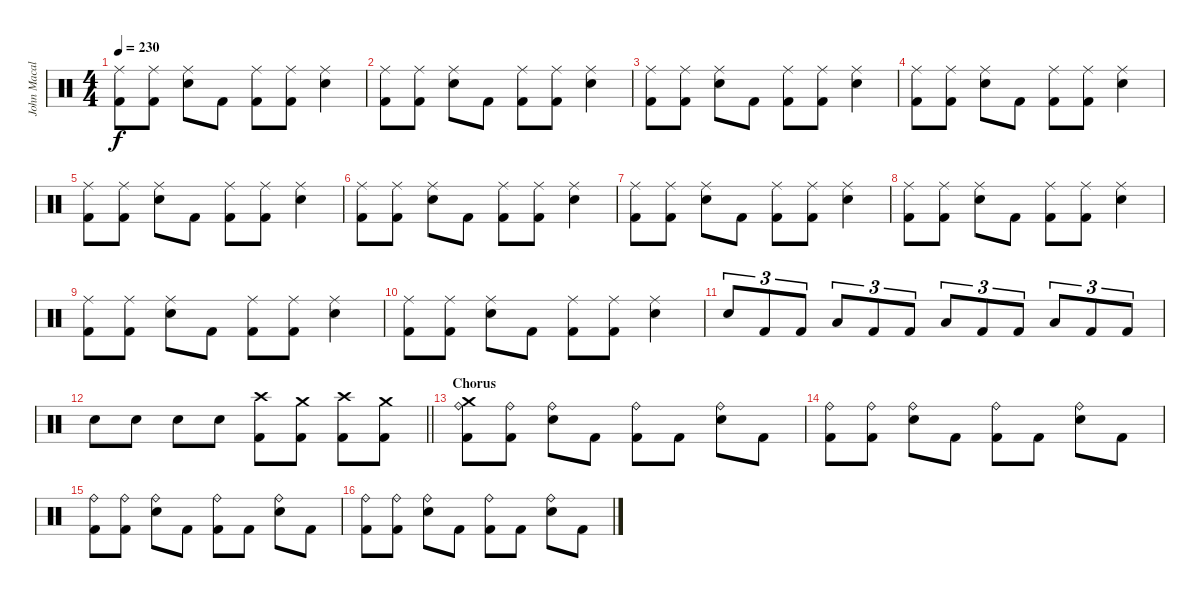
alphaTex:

\track ("John Macaluso" "John Macal") {instrument percussion}
\staff {score}
\articulation defaults
\ts (4 4)
\tempo 230
\clef neutral
\ks c
("Ride (middle)" "Kick (hit) 2").8{dy f} ("Ride (middle)" "Kick (hit) 2").8 ("Ride (middle)" "Snare (hit) 2").8 "Kick (hit) 2".8 ("Ride (middle)" "Kick (hit) 2").8 ("Ride (middle)" "Kick (hit) 2").8 ("Ride (middle)" "Snare (hit) 2").4 |
("Ride (middle)" "Kick (hit) 2").8 ("Ride (middle)" "Kick (hit) 2").8 ("Ride (middle)" "Snare (hit) 2").8 "Kick (hit) 2".8 ("Ride (middle)" "Kick (hit) 2").8 ("Ride (middle)" "Kick (hit) 2").8 ("Ride (middle)" "Snare (hit) 2").4 |
("Ride (middle)" "Kick (hit) 2").8 ("Ride (middle)" "Kick (hit) 2").8 ("Ride (middle)" "Snare (hit) 2").8 "Kick (hit) 2".8 ("Ride (middle)" "Kick (hit) 2").8 ("Ride (middle)" "Kick (hit) 2").8 ("Ride (middle)" "Snare (hit) 2").4 |
("Ride (middle)" "Kick (hit) 2").8 ("Ride (middle)" "Kick (hit) 2").8 ("Ride (middle)" "Snare (hit) 2").8 "Kick (hit) 2".8 ("Ride (middle)" "Kick (hit) 2").8 ("Ride (middle)" "Kick (hit) 2").8 ("Ride (middle)" "Snare (hit) 2").4 |
("Ride (middle)" "Kick (hit) 2").8 ("Ride (middle)" "Kick (hit) 2").8 ("Ride (middle)" "Snare (hit) 2").8 "Kick (hit) 2".8 ("Ride (middle)" "Kick (hit) 2").8 ("Ride (middle)" "Kick (hit) 2").8 ("Ride (middle)" "Snare (hit) 2").4 |
("Ride (middle)" "Kick (hit) 2").8 ("Ride (middle)" "Kick (hit) 2").8 ("Ride (middle)" "Snare (hit) 2").8 "Kick (hit) 2".8 ("Ride (middle)" "Kick (hit) 2").8 ("Ride (middle)" "Kick (hit) 2").8 ("Ride (middle)" "Snare (hit) 2").4 |
("Ride (middle)" "Kick (hit) 2").8 ("Ride (middle)" "Kick (hit) 2").8 ("Ride (middle)" "Snare (hit) 2").8 "Kick (hit) 2".8 ("Ride (middle)" "Kick (hit) 2").8 ("Ride (middle)" "Kick (hit) 2").8 ("Ride (middle)" "Snare (hit) 2").4 |
("Ride (middle)" "Kick (hit) 2").8 ("Ride (middle)" "Kick (hit) 2").8 ("Ride (middle)" "Snare (hit) 2").8 "Kick (hit) 2".8 ("Ride (middle)" "Kick (hit) 2").8 ("Ride (middle)" "Kick (hit) 2").8 ("Ride (middle)" "Snare (hit) 2").4 |
("Ride (middle)" "Kick (hit) 2").8 ("Ride (middle)" "Kick (hit) 2").8 ("Ride (middle)" "Snare (hit) 2").8 "Kick (hit) 2".8 ("Ride (middle)" "Kick (hit) 2").8 ("Ride (middle)" "Kick (hit) 2").8 ("Ride (middle)" "Snare (hit) 2").4 |
("Ride (middle)" "Kick (hit) 2").8 ("Ride (middle)" "Kick (hit) 2").8 ("Ride (middle)" "Snare (hit) 2").8 "Kick (hit) 2".8 ("Ride (middle)" "Kick (hit) 2").8 ("Ride (middle)" "Kick (hit) 2").8 ("Ride (middle)" "Snare (hit) 2").4 |
"Snare (hit) 2".8{tu (3 2)} "Kick (hit) 2".8{tu (3 2)} "Kick (hit) 2".8{tu (3 2)} "Low Tom (hit)".8{tu (3 2)} "Kick (hit) 2".8{tu (3 2)} "Kick (hit) 2".8{tu (3 2)} "Low Tom (hit)".8{tu (3 2)} "Kick (hit) 2".8{tu (3 2)} "Kick (hit) 2".8{tu (3 2)} "Low Tom (hit)".8{tu (3 2)} "Kick (hit) 2".8{tu (3 2)} "Kick (hit) 2".8{tu (3 2)} |
\barLineRight lightlight "Snare (hit) 2".8 "Snare (hit) 2".8 "Snare (hit) 2".8 "Snare (hit) 2".8
("Crash high (hit)" "Kick (hit) 2").8 ("Crash medium (hit)" "Kick (hit) 2").8 ("Crash high (hit)" "Kick (hit) 2").8 ("Crash medium (hit)" "Kick (hit) 2").8 |
\section ("" "Chorus")
("Crash medium (hit)" "Ride (bell)" "Kick (hit) 2").8 ("Ride (bell)" "Kick (hit) 2").8 ("Ride (bell)" "Snare (hit) 2").8 "Kick (hit) 2".8 ("Ride (bell)" "Kick (hit) 2").8 "Kick (hit) 2".8 ("Ride (bell)" "Snare (hit) 2").8 "Kick (hit) 2".8 |
("Ride (bell)" "Kick (hit) 2").8 ("Ride (bell)" "Kick (hit) 2").8 ("Ride (bell)" "Snare (hit) 2").8 "Kick (hit) 2".8 ("Ride (bell)" "Kick (hit) 2").8 "Kick (hit) 2".8 ("Ride (bell)" "Snare (hit) 2").8 "Kick (hit) 2".8 |
("Ride (bell)" "Kick (hit) 2").8 ("Ride (bell)" "Kick (hit) 2").8 ("Ride (bell)" "Snare (hit) 2").8 "Kick (hit) 2".8 ("Ride (bell)" "Kick (hit) 2").8 "Kick (hit) 2".8 ("Ride (bell)" "Snare (hit) 2").8 "Kick (hit) 2".8 |
("Ride (bell)" "Kick (hit) 2").8 ("Ride (bell)" "Kick (hit) 2").8 ("Ride (bell)" "Snare (hit) 2").8 "Kick (hit) 2".8 ("Ride (bell)" "Kick (hit) 2").8 "Kick (hit) 2".8 ("Ride (bell)" "Snare (hit) 2").8 "Kick (hit) 2".8
